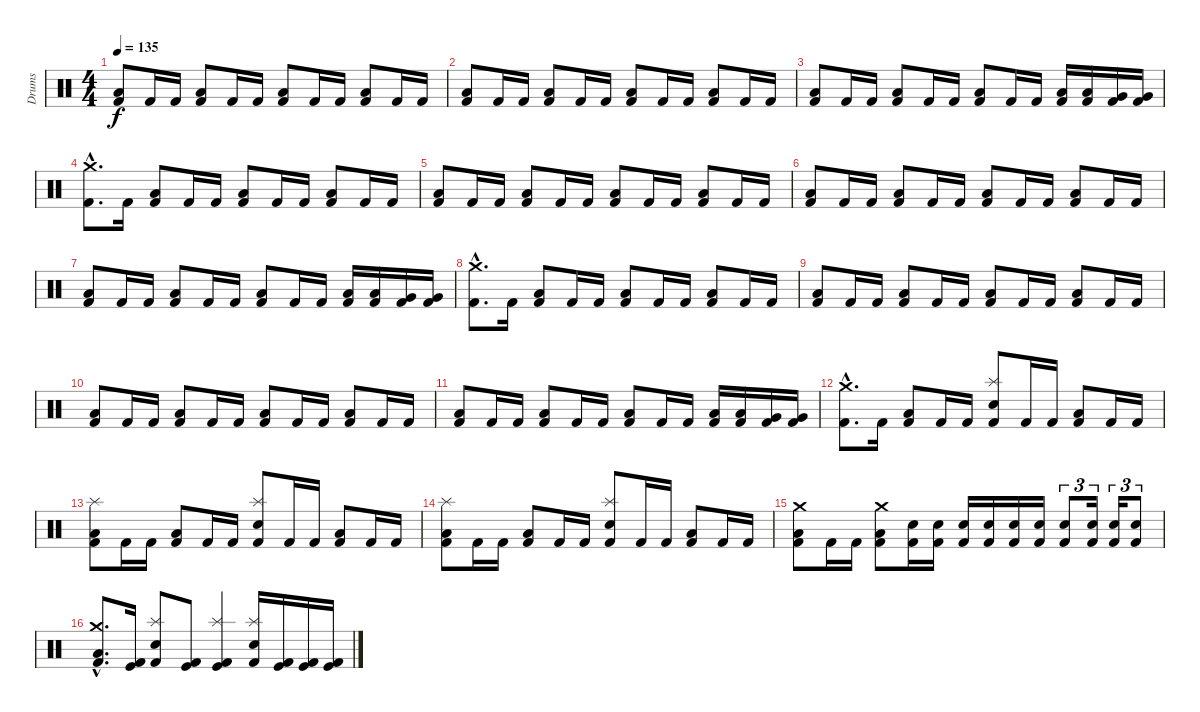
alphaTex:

\track ("Drums" "Drums") {instrument percussion}
\staff {score}
\articulation defaults
\ts (4 4)
\tempo 135
\clef neutral
\ks c
("Low Tom (hit)" "Kick (hit) 2").8{dy f} "Kick (hit) 2".16 "Kick (hit) 2".16 ("Low Tom (hit)" "Kick (hit) 2").8 "Kick (hit) 2".16 "Kick (hit) 2".16 ("Low Tom (hit)" "Kick (hit) 2").8 "Kick (hit) 2".16 "Kick (hit) 2".16 ("Low Tom (hit)" "Kick (hit) 2").8 "Kick (hit) 2".16 "Kick (hit) 2".16 |
("Low Tom (hit)" "Kick (hit) 2").8 "Kick (hit) 2".16 "Kick (hit) 2".16 ("Low Tom (hit)" "Kick (hit) 2").8 "Kick (hit) 2".16 "Kick (hit) 2".16 ("Low Tom (hit)" "Kick (hit) 2").8 "Kick (hit) 2".16 "Kick (hit) 2".16 ("Low Tom (hit)" "Kick (hit) 2").8 "Kick (hit) 2".16 "Kick (hit) 2".16 |
("Low Tom (hit)" "Kick (hit) 2").8 "Kick (hit) 2".16 "Kick (hit) 2".16 ("Low Tom (hit)" "Kick (hit) 2").8 "Kick (hit) 2".16 "Kick (hit) 2".16 ("Low Tom (hit)" "Kick (hit) 2").8 "Kick (hit) 2".16 "Kick (hit) 2".16 ("Low Tom (hit)" "Kick (hit) 2").16 ("Low Tom (hit)" "Kick (hit) 2").16 ("Very Low Tom (hit)" "Kick (hit) 2").16 ("Very Low Tom (hit)" "Kick (hit) 2").16 |
("Crash medium (hit)"{hac} "Kick (hit) 2"{hac}).8{d} "Kick (hit) 2".16 ("Low Tom (hit)" "Kick (hit) 2").8 "Kick (hit) 2".16 "Kick (hit) 2".16 ("Low Tom (hit)" "Kick (hit) 2").8 "Kick (hit) 2".16 "Kick (hit) 2".16 ("Low Tom (hit)" "Kick (hit) 2").8 "Kick (hit) 2".16 "Kick (hit) 2".16 |
("Low Tom (hit)" "Kick (hit) 2").8 "Kick (hit) 2".16 "Kick (hit) 2".16 ("Low Tom (hit)" "Kick (hit) 2").8 "Kick (hit) 2".16 "Kick (hit) 2".16 ("Low Tom (hit)" "Kick (hit) 2").8 "Kick (hit) 2".16 "Kick (hit) 2".16 ("Low Tom (hit)" "Kick (hit) 2").8 "Kick (hit) 2".16 "Kick (hit) 2".16 |
("Low Tom (hit)" "Kick (hit) 2").8 "Kick (hit) 2".16 "Kick (hit) 2".16 ("Low Tom (hit)" "Kick (hit) 2").8 "Kick (hit) 2".16 "Kick (hit) 2".16 ("Low Tom (hit)" "Kick (hit) 2").8 "Kick (hit) 2".16 "Kick (hit) 2".16 ("Low Tom (hit)" "Kick (hit) 2").8 "Kick (hit) 2".16 "Kick (hit) 2".16 |
("Low Tom (hit)" "Kick (hit) 2").8 "Kick (hit) 2".16 "Kick (hit) 2".16 ("Low Tom (hit)" "Kick (hit) 2").8 "Kick (hit) 2".16 "Kick (hit) 2".16 ("Low Tom (hit)" "Kick (hit) 2").8 "Kick (hit) 2".16 "Kick (hit) 2".16 ("Low Tom (hit)" "Kick (hit) 2").16 ("Low Tom (hit)" "Kick (hit) 2").16 ("Very Low Tom (hit)" "Kick (hit) 2").16 ("Very Low Tom (hit)" "Kick (hit) 2").16 |
("Crash medium (hit)"{hac} "Kick (hit) 2"{hac}).8{d} "Kick (hit) 2".16 ("Low Tom (hit)" "Kick (hit) 2").8 "Kick (hit) 2".16 "Kick (hit) 2".16 ("Low Tom (hit)" "Kick (hit) 2").8 "Kick (hit) 2".16 "Kick (hit) 2".16 ("Low Tom (hit)" "Kick (hit) 2").8 "Kick (hit) 2".16 "Kick (hit) 2".16 |
("Low Tom (hit)" "Kick (hit) 2").8 "Kick (hit) 2".16 "Kick (hit) 2".16 ("Low Tom (hit)" "Kick (hit) 2").8 "Kick (hit) 2".16 "Kick (hit) 2".16 ("Low Tom (hit)" "Kick (hit) 2").8 "Kick (hit) 2".16 "Kick (hit) 2".16 ("Low Tom (hit)" "Kick (hit) 2").8 "Kick (hit) 2".16 "Kick (hit) 2".16 |
("Low Tom (hit)" "Kick (hit) 2").8 "Kick (hit) 2".16 "Kick (hit) 2".16 ("Low Tom (hit)" "Kick (hit) 2").8 "Kick (hit) 2".16 "Kick (hit) 2".16 ("Low Tom (hit)" "Kick (hit) 2").8 "Kick (hit) 2".16 "Kick (hit) 2".16 ("Low Tom (hit)" "Kick (hit) 2").8 "Kick (hit) 2".16 "Kick (hit) 2".16 |
("Low Tom (hit)" "Kick (hit) 2").8 "Kick (hit) 2".16 "Kick (hit) 2".16 ("Low Tom (hit)" "Kick (hit) 2").8 "Kick (hit) 2".16 "Kick (hit) 2".16 ("Low Tom (hit)" "Kick (hit) 2").8 "Kick (hit) 2".16 "Kick (hit) 2".16 ("Low Tom (hit)" "Kick (hit) 2").16 ("Low Tom (hit)" "Kick (hit) 2").16 ("Very Low Tom (hit)" "Kick (hit) 2").16 ("Very Low Tom (hit)" "Kick (hit) 2").16 |
("Crash medium (hit)"{hac} "Kick (hit) 2"{hac}).8{d} "Kick (hit) 2".16 ("Low Tom (hit)" "Kick (hit) 2").8 "Kick (hit) 2".16 "Kick (hit) 2".16 ("Splash (hit)" "Electric Snare (hit)" "Kick (hit) 2").8 "Kick (hit) 2".16 "Kick (hit) 2".16 ("Low Tom (hit)" "Kick (hit) 2").8 "Kick (hit) 2".16 "Kick (hit) 2".16 |
("Splash (hit)" "Low Tom (hit)" "Kick (hit) 2").8 "Kick (hit) 2".16 "Kick (hit) 2".16 ("Low Tom (hit)" "Kick (hit) 2").8 "Kick (hit) 2".16 "Kick (hit) 2".16 ("Splash (hit)" "Electric Snare (hit)" "Kick (hit) 2").8 "Kick (hit) 2".16 "Kick (hit) 2".16 ("Low Tom (hit)" "Kick (hit) 2").8 "Kick (hit) 2".16 "Kick (hit) 2".16 |
("Splash (hit)" "Low Tom (hit)" "Kick (hit) 2").8 "Kick (hit) 2".16 "Kick (hit) 2".16 ("Low Tom (hit)" "Kick (hit) 2").8 "Kick (hit) 2".16 "Kick (hit) 2".16 ("Splash (hit)" "Electric Snare (hit)" "Kick (hit) 2").8 "Kick (hit) 2".16 "Kick (hit) 2".16 ("Low Tom (hit)" "Kick (hit) 2").8 "Kick (hit) 2".16 "Kick (hit) 2".16 |
("Crash medium (hit)" "Low Tom (hit)" "Kick (hit) 2").8 "Kick (hit) 2".16 "Kick (hit) 2".16 ("Crash medium (hit)" "Low Tom (hit)" "Kick (hit) 2").8 ("Snare (hit) 2" "Kick (hit) 2").16 ("Snare (hit) 2" "Kick (hit) 2").16 ("Snare (hit) 2" "Kick (hit) 2").16 ("Snare (hit) 2" "Kick (hit) 2").16 ("Snare (hit) 2" "Kick (hit) 2").16 ("Snare (hit) 2" "Kick (hit) 2").16 ("Electric Snare (hit)" "Kick (hit) 2").8{tu (3 2)} ("Electric Snare (hit)" "Kick (hit) 2").16{tu (3 2)} ("Electric Snare (hit)" "Kick (hit) 2").16{tu (3 2)} ("Electric Snare (hit)" "Kick (hit) 2").8{tu (3 2)} |
("Crash medium (hit)"{hac} "Low Floor Tom (hit)"{hac} "Kick (hit) 2"{hac}).8{d} ("Kick (hit)" "Kick (hit) 2").16 ("Splash (hit)" "Snare (hit) 2" "Kick (hit) 2").8 ("Kick (hit)" "Kick (hit) 2").8 ("Splash (hit)" "Kick (hit)" "Kick (hit) 2").4 ("Splash (hit)" "Snare (hit) 2" "Kick (hit) 2").16 ("Kick (hit)" "Kick (hit) 2").16 ("Kick (hit)" "Kick (hit) 2").16 ("Kick (hit)" "Kick (hit) 2").16
